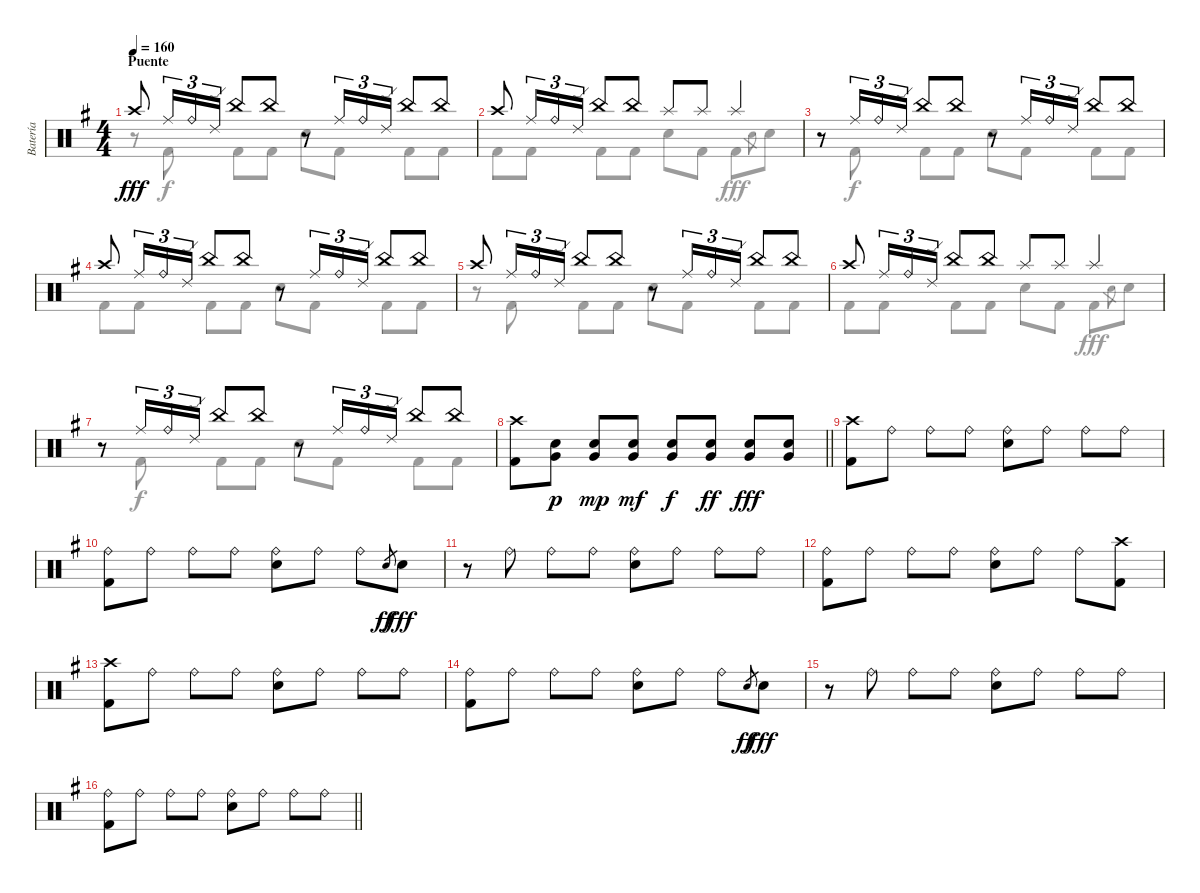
\track ("Batería" "Batería") {instrument percussion}
\staff {score}
\articulation defaults
\voice
\ts (4 4)
\section ("" "Puente")
\tempo 160
\clef neutral
\ks g "Crash high (hit)".8{dy fff} "Ride (middle)".16{tu (3 2)} "Ride (bell)".16{tu (3 2)} "Ride (edge) 2".16{tu (3 2)} "China (hit)".8 "China (hit)".8
r.8 "Ride (middle)".16{tu (3 2)} "Ride (bell)".16{tu (3 2)} "Ride (edge) 2".16{tu (3 2)} "China (hit)".8 "China (hit)".8 |
"Crash high (hit)".8 "Ride (middle)".16{tu (3 2)} "Ride (bell)".16{tu (3 2)} "Ride (edge) 2".16{tu (3 2)} "China (hit)".8 "China (hit)".8 "Splash (hit)".8 "Splash (hit)".8 "Splash (hit)".4 |
r.8 "Ride (middle)".16{tu (3 2)} "Ride (bell)".16{tu (3 2)} "Ride (edge) 2".16{tu (3 2)} "China (hit)".8 "China (hit)".8 r.8 "Ride (middle)".16{tu (3 2)} "Ride (bell)".16{tu (3 2)} "Ride (edge) 2".16{tu (3 2)} "China (hit)".8 "China (hit)".8 |
"Crash high (hit)".8 "Ride (middle)".16{tu (3 2)} "Ride (bell)".16{tu (3 2)} "Ride (edge) 2".16{tu (3 2)} "China (hit)".8 "China (hit)".8 r.8 "Ride (middle)".16{tu (3 2)} "Ride (bell)".16{tu (3 2)} "Ride (edge) 2".16{tu (3 2)} "China (hit)".8 "China (hit)".8 |
"Crash high (hit)".8 "Ride (middle)".16{tu (3 2)} "Ride (bell)".16{tu (3 2)} "Ride (edge) 2".16{tu (3 2)} "China (hit)".8 "China (hit)".8 r.8 "Ride (middle)".16{tu (3 2)} "Ride (bell)".16{tu (3 2)} "Ride (edge) 2".16{tu (3 2)} "China (hit)".8 "China (hit)".8 |
"Crash high (hit)".8 "Ride (middle)".16{tu (3 2)} "Ride (bell)".16{tu (3 2)} "Ride (edge) 2".16{tu (3 2)} "China (hit)".8 "China (hit)".8 "Splash (hit)".8 "Splash (hit)".8 "Splash (hit)".4 |
r.8 "Ride (middle)".16{tu (3 2)} "Ride (bell)".16{tu (3 2)} "Ride (edge) 2".16{tu (3 2)} "China (hit)".8 "China (hit)".8 r.8 "Ride (middle)".16{tu (3 2)} "Ride (bell)".16{tu (3 2)} "Ride (edge) 2".16{tu (3 2)} "China (hit)".8 "China (hit)".8 |
\barLineRight lightlight
("Crash high (hit)" "Kick (hit) 2").8 ("Snare (hit) 2" "Very Low Tom (hit)").8{dy p} ("Snare (hit) 2" "Very Low Tom (hit)").8{dy mp} ("Snare (hit) 2" "Very Low Tom (hit)").8{dy mf} ("Snare (hit) 2" "Very Low Tom (hit)").8{dy f} ("Snare (hit) 2" "Very Low Tom (hit)").8{dy ff} ("Snare (hit) 2" "Very Low Tom (hit)").8{dy fff} ("Snare (hit) 2" "Very Low Tom (hit)").8 |
\section ("" "")
("Crash high (hit)" "Kick (hit) 2").8 "Ride (bell)".8 "Ride (bell)".8 "Ride (bell)".8 ("Ride (bell)" "Snare (hit) 2").8 "Ride (bell)".8 "Ride (bell)".8 "Ride (bell)".8 |
("Ride (bell)" "Kick (hit) 2").8 "Ride (bell)".8 "Ride (bell)".8 "Ride (bell)".8 ("Ride (bell)" "Snare (hit) 2").8 "Ride (bell)".8 "Ride (bell)".8 "Snare (hit) 2".8{gr dy ff} "Snare (hit) 2".8{dy fff} |
r.8 "Ride (bell)".8 "Ride (bell)".8 "Ride (bell)".8 ("Ride (bell)" "Snare (hit) 2").8 "Ride (bell)".8 "Ride (bell)".8 "Ride (bell)".8 |
("Ride (bell)" "Kick (hit) 2").8 "Ride (bell)".8 "Ride (bell)".8 "Ride (bell)".8 ("Ride (bell)" "Snare (hit) 2").8 "Ride (bell)".8 "Ride (bell)".8 ("Crash high (hit)" "Kick (hit) 2").8 |
("Crash high (hit)" "Kick (hit) 2").8 "Ride (bell)".8 "Ride (bell)".8 "Ride (bell)".8 ("Ride (bell)" "Snare (hit) 2").8 "Ride (bell)".8 "Ride (bell)".8 "Ride (bell)".8 |
("Ride (bell)" "Kick (hit) 2").8 "Ride (bell)".8 "Ride (bell)".8 "Ride (bell)".8 ("Ride (bell)" "Snare (hit) 2").8 "Ride (bell)".8 "Ride (bell)".8 "Snare (hit) 2".8{gr dy ff} "Snare (hit) 2".8{dy fff} |
r.8 "Ride (bell)".8 "Ride (bell)".8 "Ride (bell)".8 ("Ride (bell)" "Snare (hit) 2").8 "Ride (bell)".8 "Ride (bell)".8 "Ride (bell)".8 |
\barLineRight lightlight
("Ride (bell)" "Kick (hit) 2").8 "Ride (bell)".8 "Ride (bell)".8 "Ride (bell)".8 ("Ride (bell)" "Snare (hit) 2").8 "Ride (bell)".8 "Ride (bell)".8 "Ride (bell)".8
\voice
\clef neutral
\ottava regular
\simile none
\ks g
r.8{dy f} "Kick (hit) 2".8 "Kick (hit) 2".8 "Kick (hit) 2".8 "Snare (hit) 2".8 "Kick (hit) 2".8 "Kick (hit) 2".8 "Kick (hit) 2".8 |
"Kick (hit) 2".8 "Kick (hit) 2".8 "Kick (hit) 2".8 "Kick (hit) 2".8 "Snare (hit) 2".8 "Kick (hit) 2".8 "Kick (hit) 2".8{dy fff} "Snare (hit) 2".8{gr} "Snare (hit) 2".8 |
r.8 "Kick (hit) 2".8{dy f} "Kick (hit) 2".8 "Kick (hit) 2".8 "Snare (hit) 2".8 "Kick (hit) 2".8 "Kick (hit) 2".8 "Kick (hit) 2".8 |
"Kick (hit) 2".8 "Kick (hit) 2".8 "Kick (hit) 2".8 "Kick (hit) 2".8 "Snare (hit) 2".8 "Kick (hit) 2".8 "Kick (hit) 2".8 "Kick (hit) 2".8 |
r.8 "Kick (hit) 2".8 "Kick (hit) 2".8 "Kick (hit) 2".8 "Snare (hit) 2".8 "Kick (hit) 2".8 "Kick (hit) 2".8 "Kick (hit) 2".8 |
"Kick (hit) 2".8 "Kick (hit) 2".8 "Kick (hit) 2".8 "Kick (hit) 2".8 "Snare (hit) 2".8 "Kick (hit) 2".8 "Kick (hit) 2".8{dy fff} "Snare (hit) 2".8{gr} "Snare (hit) 2".8 |
r.8 "Kick (hit) 2".8{dy f} "Kick (hit) 2".8 "Kick (hit) 2".8 "Snare (hit) 2".8 "Kick (hit) 2".8 "Kick (hit) 2".8 "Kick (hit) 2".8 |
\barLineRight lightlight
|
|
|
|
|
|
|
|
\barLineRight lightlight
